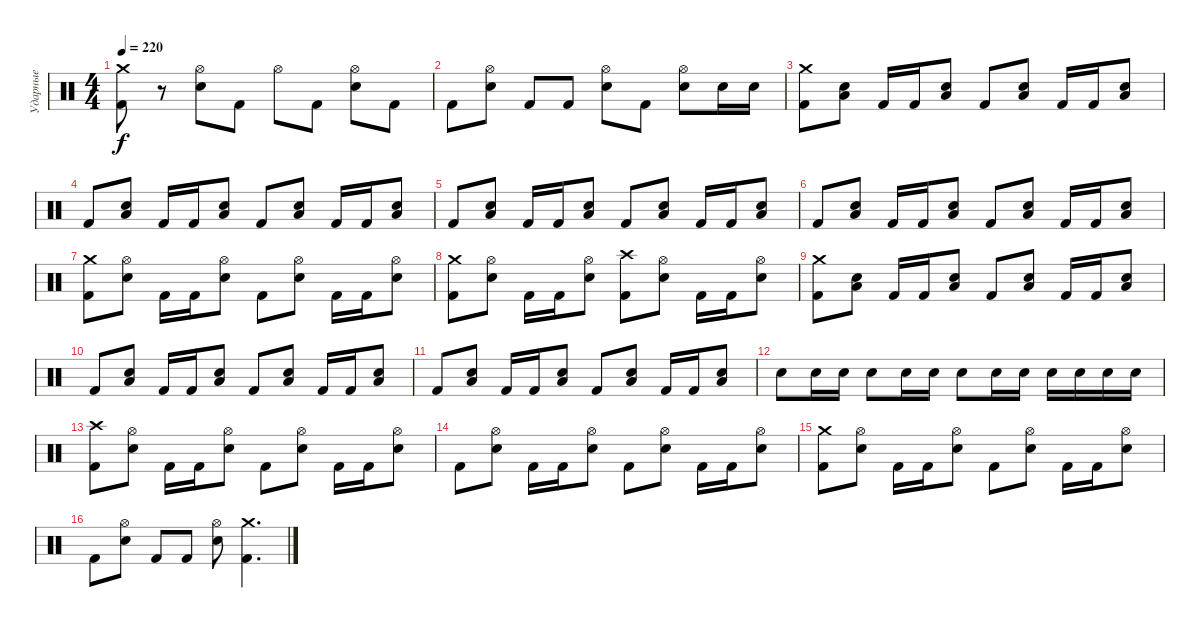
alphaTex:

\track ("Ударные" "Ударные") {instrument percussion}
\staff {score}
\articulation defaults
\ts (4 4)
\tempo 220
\clef neutral
\ks c
("Crash medium (hit)" "Kick (hit) 2").8{dy f} r.8 ("Hi-Hat (open)" "Electric Snare (hit)").8 "Kick (hit) 2".8 "Hi-Hat (open)".8 "Kick (hit) 2".8 ("Hi-Hat (open)" "Electric Snare (hit)").8 "Kick (hit) 2".8 |
"Kick (hit) 2".8 ("Hi-Hat (open)" "Electric Snare (hit)").8 "Kick (hit) 2".8 "Kick (hit) 2".8 ("Hi-Hat (open)" "Electric Snare (hit)").8 "Kick (hit) 2".8 ("Hi-Hat (open)" "Electric Snare (hit)").8 "Electric Snare (hit)".16 "Electric Snare (hit)".16 |
("Crash medium (hit)" "Kick (hit) 2").8 ("Low Floor Tom (hit)" "Electric Snare (hit)").8 "Kick (hit) 2".16 "Kick (hit) 2".16 ("Low Floor Tom (hit)" "Electric Snare (hit)").8 "Kick (hit) 2".8 ("Low Floor Tom (hit)" "Electric Snare (hit)").8 "Kick (hit) 2".16 "Kick (hit) 2".16 ("Low Floor Tom (hit)" "Electric Snare (hit)").8 |
"Kick (hit) 2".8 ("Low Floor Tom (hit)" "Electric Snare (hit)").8 "Kick (hit) 2".16 "Kick (hit) 2".16 ("Low Floor Tom (hit)" "Electric Snare (hit)").8 "Kick (hit) 2".8 ("Low Floor Tom (hit)" "Electric Snare (hit)").8 "Kick (hit) 2".16 "Kick (hit) 2".16 ("Low Floor Tom (hit)" "Electric Snare (hit)").8 |
"Kick (hit) 2".8 ("Low Floor Tom (hit)" "Electric Snare (hit)").8 "Kick (hit) 2".16 "Kick (hit) 2".16 ("Low Floor Tom (hit)" "Electric Snare (hit)").8 "Kick (hit) 2".8 ("Low Floor Tom (hit)" "Electric Snare (hit)").8 "Kick (hit) 2".16 "Kick (hit) 2".16 ("Low Floor Tom (hit)" "Electric Snare (hit)").8 |
"Kick (hit) 2".8 ("Low Floor Tom (hit)" "Electric Snare (hit)").8 "Kick (hit) 2".16 "Kick (hit) 2".16 ("Low Floor Tom (hit)" "Electric Snare (hit)").8 "Kick (hit) 2".8 ("Low Floor Tom (hit)" "Electric Snare (hit)").8 "Kick (hit) 2".16 "Kick (hit) 2".16 ("Low Floor Tom (hit)" "Electric Snare (hit)").8 |
("Crash medium (hit)" "Kick (hit) 2").8 ("Hi-Hat (open)" "Electric Snare (hit)").8 "Kick (hit) 2".16 "Kick (hit) 2".16 ("Hi-Hat (open)" "Electric Snare (hit)").8 "Kick (hit) 2".8 ("Hi-Hat (open)" "Electric Snare (hit)").8 "Kick (hit) 2".16 "Kick (hit) 2".16 ("Hi-Hat (open)" "Electric Snare (hit)").8 |
("Crash medium (hit)" "Kick (hit) 2").8 ("Hi-Hat (open)" "Electric Snare (hit)").8 "Kick (hit) 2".16 "Kick (hit) 2".16 ("Hi-Hat (open)" "Electric Snare (hit)").8 ("Crash high (hit)" "Kick (hit) 2").8 ("Hi-Hat (open)" "Electric Snare (hit)").8 "Kick (hit) 2".16 "Kick (hit) 2".16 ("Hi-Hat (open)" "Electric Snare (hit)").8 |
("Crash medium (hit)" "Kick (hit) 2").8 ("Low Floor Tom (hit)" "Electric Snare (hit)").8 "Kick (hit) 2".16 "Kick (hit) 2".16 ("Low Floor Tom (hit)" "Electric Snare (hit)").8 "Kick (hit) 2".8 ("Low Floor Tom (hit)" "Electric Snare (hit)").8 "Kick (hit) 2".16 "Kick (hit) 2".16 ("Low Floor Tom (hit)" "Electric Snare (hit)").8 |
"Kick (hit) 2".8 ("Low Floor Tom (hit)" "Electric Snare (hit)").8 "Kick (hit) 2".16 "Kick (hit) 2".16 ("Low Floor Tom (hit)" "Electric Snare (hit)").8 "Kick (hit) 2".8 ("Low Floor Tom (hit)" "Electric Snare (hit)").8 "Kick (hit) 2".16 "Kick (hit) 2".16 ("Low Floor Tom (hit)" "Electric Snare (hit)").8 |
"Kick (hit) 2".8 ("Low Floor Tom (hit)" "Electric Snare (hit)").8 "Kick (hit) 2".16 "Kick (hit) 2".16 ("Low Floor Tom (hit)" "Electric Snare (hit)").8 "Kick (hit) 2".8 ("Low Floor Tom (hit)" "Electric Snare (hit)").8 "Kick (hit) 2".16 "Kick (hit) 2".16 ("Low Floor Tom (hit)" "Electric Snare (hit)").8 |
"Electric Snare (hit)".8 "Electric Snare (hit)".16 "Electric Snare (hit)".16 "Electric Snare (hit)".8 "Electric Snare (hit)".16 "Electric Snare (hit)".16 "Electric Snare (hit)".8 "Electric Snare (hit)".16 "Electric Snare (hit)".16 "Electric Snare (hit)".16 "Electric Snare (hit)".16 "Electric Snare (hit)".16 "Electric Snare (hit)".16 |
("Crash high (hit)" "Kick (hit) 2").8 ("Hi-Hat (open)" "Electric Snare (hit)").8 "Kick (hit) 2".16 "Kick (hit) 2".16 ("Hi-Hat (open)" "Electric Snare (hit)").8 "Kick (hit) 2".8 ("Hi-Hat (open)" "Electric Snare (hit)").8 "Kick (hit) 2".16 "Kick (hit) 2".16 ("Hi-Hat (open)" "Electric Snare (hit)").8 |
"Kick (hit) 2".8 ("Hi-Hat (open)" "Electric Snare (hit)").8 "Kick (hit) 2".16 "Kick (hit) 2".16 ("Hi-Hat (open)" "Electric Snare (hit)").8 "Kick (hit) 2".8 ("Hi-Hat (open)" "Electric Snare (hit)").8 "Kick (hit) 2".16 "Kick (hit) 2".16 ("Hi-Hat (open)" "Electric Snare (hit)").8 |
("Crash medium (hit)" "Kick (hit) 2").8 ("Hi-Hat (open)" "Electric Snare (hit)").8 "Kick (hit) 2".16 "Kick (hit) 2".16 ("Hi-Hat (open)" "Electric Snare (hit)").8 "Kick (hit) 2".8 ("Hi-Hat (open)" "Electric Snare (hit)").8 "Kick (hit) 2".16 "Kick (hit) 2".16 ("Hi-Hat (open)" "Electric Snare (hit)").8 |
"Kick (hit) 2".8 ("Hi-Hat (open)" "Electric Snare (hit)").8 "Kick (hit) 2".8 "Kick (hit) 2".8 ("Hi-Hat (open)" "Electric Snare (hit)").8 ("Crash medium (hit)" "Kick (hit) 2").4{d}
